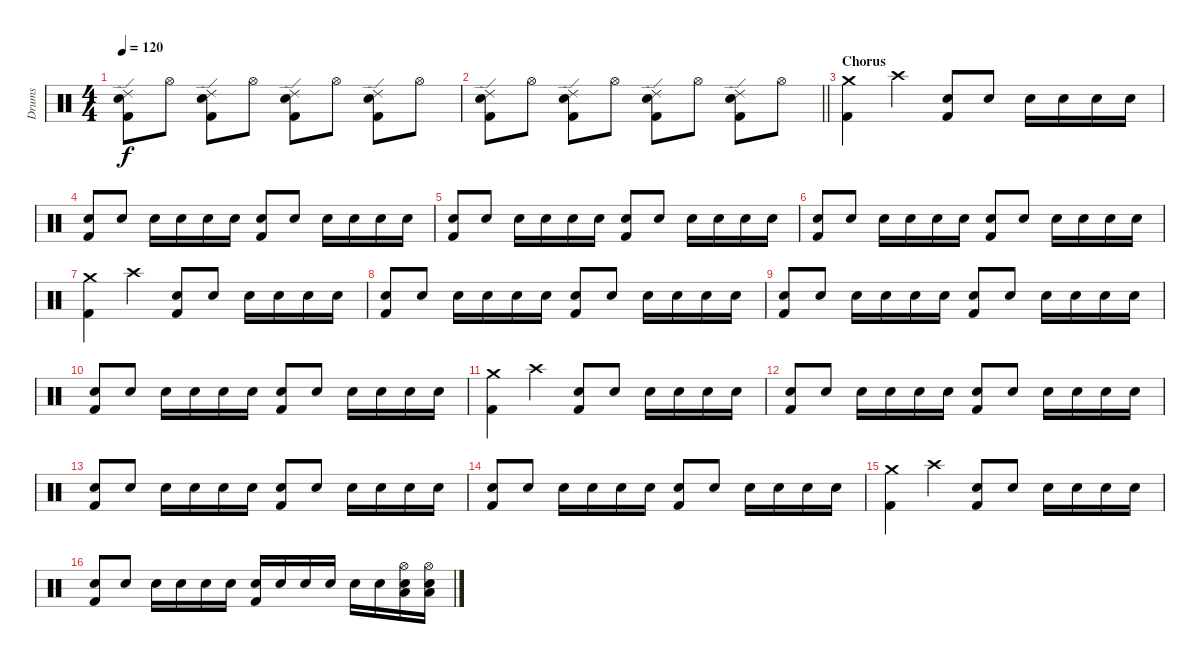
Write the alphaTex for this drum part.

\track ("Drums" "Drums") {instrument percussion}
\staff {score}
\articulation defaults
\ts (4 4)
\tempo 120
\clef neutral
\ks c
("Ride (edge) 2" "Electric Snare (hit)" "Kick (hit) 2").8{dy f} "Hi-Hat (open)".8 ("Ride (edge) 2" "Electric Snare (hit)" "Kick (hit) 2").8 "Hi-Hat (open)".8 ("Ride (edge) 2" "Electric Snare (hit)" "Kick (hit) 2").8 "Hi-Hat (open)".8 ("Ride (edge) 2" "Electric Snare (hit)" "Kick (hit) 2").8 "Hi-Hat (open)".8 |
\barLineRight lightlight
("Ride (edge) 2" "Electric Snare (hit)" "Kick (hit) 2").8 "Hi-Hat (open)".8 ("Ride (edge) 2" "Electric Snare (hit)" "Kick (hit) 2").8 "Hi-Hat (open)".8 ("Ride (edge) 2" "Electric Snare (hit)" "Kick (hit) 2").8 "Hi-Hat (open)".8 ("Ride (edge) 2" "Electric Snare (hit)" "Kick (hit) 2").8 "Hi-Hat (open)".8 |
\section ("" "Chorus")
("Kick (hit) 2" "Crash medium (hit)").4 "Crash high (hit)".4 ("Snare (hit) 2" "Kick (hit) 2").8 "Electric Snare (hit)".8 "Snare (hit) 2".16 "Electric Snare (hit)".16 "Snare (hit) 2".16 "Electric Snare (hit)".16 |
("Snare (hit) 2" "Kick (hit) 2").8 "Electric Snare (hit)".8 "Snare (hit) 2".16 "Electric Snare (hit)".16 "Snare (hit) 2".16 "Electric Snare (hit)".16 ("Snare (hit) 2" "Kick (hit) 2").8 "Electric Snare (hit)".8 "Snare (hit) 2".16 "Electric Snare (hit)".16 "Snare (hit) 2".16 "Electric Snare (hit)".16 |
("Snare (hit) 2" "Kick (hit) 2").8 "Electric Snare (hit)".8 "Snare (hit) 2".16 "Electric Snare (hit)".16 "Snare (hit) 2".16 "Electric Snare (hit)".16 ("Snare (hit) 2" "Kick (hit) 2").8 "Electric Snare (hit)".8 "Snare (hit) 2".16 "Electric Snare (hit)".16 "Snare (hit) 2".16 "Electric Snare (hit)".16 |
("Snare (hit) 2" "Kick (hit) 2").8 "Electric Snare (hit)".8 "Snare (hit) 2".16 "Electric Snare (hit)".16 "Snare (hit) 2".16 "Electric Snare (hit)".16 ("Snare (hit) 2" "Kick (hit) 2").8 "Electric Snare (hit)".8 "Snare (hit) 2".16 "Electric Snare (hit)".16 "Snare (hit) 2".16 "Electric Snare (hit)".16 |
("Kick (hit) 2" "Crash medium (hit)").4 "Crash high (hit)".4 ("Snare (hit) 2" "Kick (hit) 2").8 "Electric Snare (hit)".8 "Snare (hit) 2".16 "Electric Snare (hit)".16 "Snare (hit) 2".16 "Electric Snare (hit)".16 |
("Snare (hit) 2" "Kick (hit) 2").8 "Electric Snare (hit)".8 "Snare (hit) 2".16 "Electric Snare (hit)".16 "Snare (hit) 2".16 "Electric Snare (hit)".16 ("Snare (hit) 2" "Kick (hit) 2").8 "Electric Snare (hit)".8 "Snare (hit) 2".16 "Electric Snare (hit)".16 "Snare (hit) 2".16 "Electric Snare (hit)".16 |
("Snare (hit) 2" "Kick (hit) 2").8 "Electric Snare (hit)".8 "Snare (hit) 2".16 "Electric Snare (hit)".16 "Snare (hit) 2".16 "Electric Snare (hit)".16 ("Snare (hit) 2" "Kick (hit) 2").8 "Electric Snare (hit)".8 "Snare (hit) 2".16 "Electric Snare (hit)".16 "Snare (hit) 2".16 "Electric Snare (hit)".16 |
("Snare (hit) 2" "Kick (hit) 2").8 "Electric Snare (hit)".8 "Snare (hit) 2".16 "Electric Snare (hit)".16 "Snare (hit) 2".16 "Electric Snare (hit)".16 ("Snare (hit) 2" "Kick (hit) 2").8 "Electric Snare (hit)".8 "Snare (hit) 2".16 "Electric Snare (hit)".16 "Snare (hit) 2".16 "Electric Snare (hit)".16 |
("Kick (hit) 2" "Crash medium (hit)").4 "Crash high (hit)".4 ("Snare (hit) 2" "Kick (hit) 2").8 "Electric Snare (hit)".8 "Snare (hit) 2".16 "Electric Snare (hit)".16 "Snare (hit) 2".16 "Electric Snare (hit)".16 |
("Snare (hit) 2" "Kick (hit) 2").8 "Electric Snare (hit)".8 "Snare (hit) 2".16 "Electric Snare (hit)".16 "Snare (hit) 2".16 "Electric Snare (hit)".16 ("Snare (hit) 2" "Kick (hit) 2").8 "Electric Snare (hit)".8 "Snare (hit) 2".16 "Electric Snare (hit)".16 "Snare (hit) 2".16 "Electric Snare (hit)".16 |
("Snare (hit) 2" "Kick (hit) 2").8 "Electric Snare (hit)".8 "Snare (hit) 2".16 "Electric Snare (hit)".16 "Snare (hit) 2".16 "Electric Snare (hit)".16 ("Snare (hit) 2" "Kick (hit) 2").8 "Electric Snare (hit)".8 "Snare (hit) 2".16 "Electric Snare (hit)".16 "Snare (hit) 2".16 "Electric Snare (hit)".16 |
("Snare (hit) 2" "Kick (hit) 2").8 "Electric Snare (hit)".8 "Snare (hit) 2".16 "Electric Snare (hit)".16 "Snare (hit) 2".16 "Electric Snare (hit)".16 ("Snare (hit) 2" "Kick (hit) 2").8 "Electric Snare (hit)".8 "Snare (hit) 2".16 "Electric Snare (hit)".16 "Snare (hit) 2".16 "Electric Snare (hit)".16 |
("Kick (hit) 2" "Crash medium (hit)").4 "Crash high (hit)".4 ("Snare (hit) 2" "Kick (hit) 2").8 "Electric Snare (hit)".8 "Snare (hit) 2".16 "Electric Snare (hit)".16 "Snare (hit) 2".16 "Electric Snare (hit)".16 |
("Snare (hit) 2" "Kick (hit) 2").8 "Electric Snare (hit)".8 "Snare (hit) 2".16 "Electric Snare (hit)".16 "Snare (hit) 2".16 "Electric Snare (hit)".16 ("Snare (hit) 2" "Kick (hit) 2").16 "Electric Snare (hit)".16 "Snare (hit) 2".16 "Electric Snare (hit)".16 "Snare (hit) 2".16 "Electric Snare (hit)".16 ("Snare (hit) 2" "Hi-Hat (open)" "Low Floor Tom (hit)").16 ("Electric Snare (hit)" "Hi-Hat (open)" "Low Floor Tom (hit)").16
